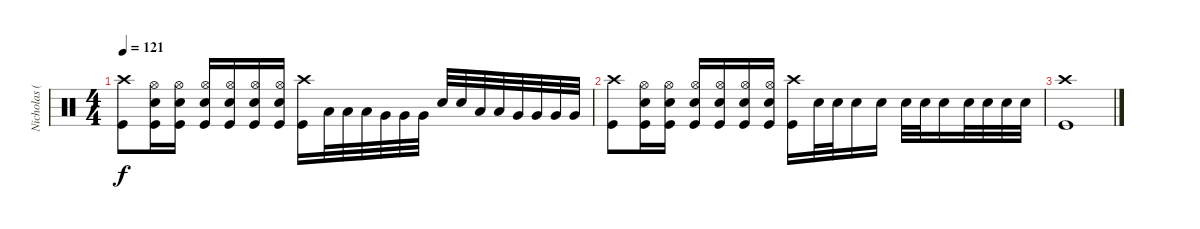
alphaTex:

\track ("Nicholas (Drums)" "Nicholas (") {instrument percussion}
\staff {score}
\articulation defaults
\ts (4 4)
\tempo 121
\clef neutral
\ks c
("Crash high (hit)" "Kick (hit)").8{dy f} ("Hi-Hat (open)" "Electric Snare (hit)" "Kick (hit)").16 ("Hi-Hat (open)" "Electric Snare (hit)" "Kick (hit)").16 ("Hi-Hat (open)" "Electric Snare (hit)" "Kick (hit)").16 ("Hi-Hat (open)" "Electric Snare (hit)" "Kick (hit)").16 ("Hi-Hat (open)" "Electric Snare (hit)" "Kick (hit)").16 ("Hi-Hat (open)" "Electric Snare (hit)" "Kick (hit)").16 ("Crash high (hit)" "Kick (hit)").16 "Low Tom (hit)".32 "Low Tom (hit)".32 "Low Tom (hit)".32 "Very Low Tom (hit)".32 "Very Low Tom (hit)".32 "Very Low Tom (hit)".32 "Electric Snare (hit)".32 "Electric Snare (hit)".32 "Low Tom (hit)".32 "Low Tom (hit)".32 "Very Low Tom (hit)".32 "Very Low Tom (hit)".32 "Very Low Tom (hit)".32 "Very Low Tom (hit)".32 |
("Crash high (hit)" "Kick (hit)").8 ("Hi-Hat (open)" "Electric Snare (hit)" "Kick (hit)").16 ("Hi-Hat (open)" "Electric Snare (hit)" "Kick (hit)").16 ("Hi-Hat (open)" "Electric Snare (hit)" "Kick (hit)").16 ("Hi-Hat (open)" "Electric Snare (hit)" "Kick (hit)").16 ("Hi-Hat (open)" "Electric Snare (hit)" "Kick (hit)").16 ("Hi-Hat (open)" "Electric Snare (hit)" "Kick (hit)").16 ("Crash high (hit)" "Kick (hit)").16 "Electric Snare (hit)".32 "Electric Snare (hit)".32 "Electric Snare (hit)".16 "Electric Snare (hit)".16 "Electric Snare (hit)".32 "Electric Snare (hit)".32 "Electric Snare (hit)".16 "Electric Snare (hit)".32 "Electric Snare (hit)".32 "Electric Snare (hit)".32 "Electric Snare (hit)".32 |
("Crash high (hit)" "Kick (hit)").1
